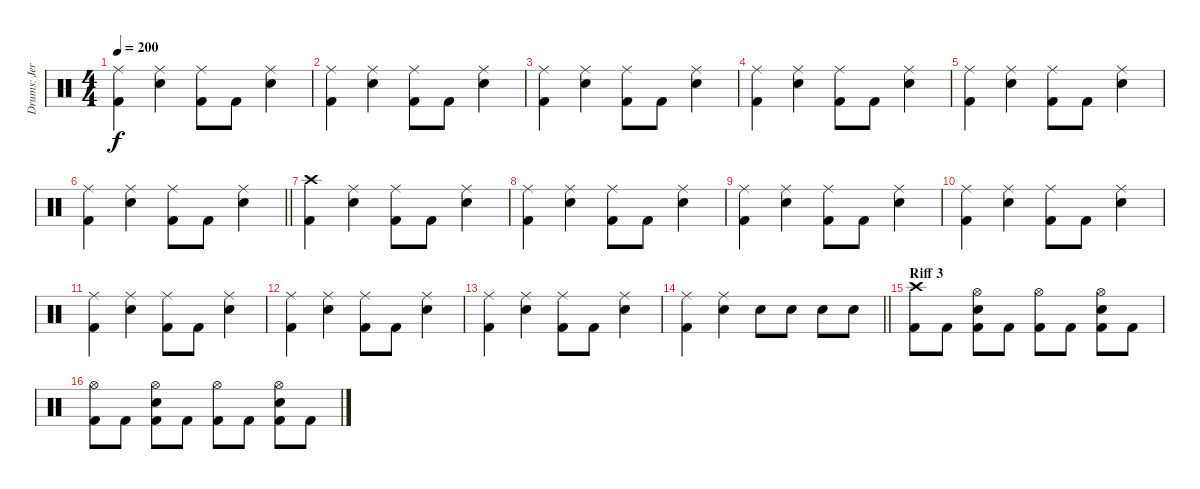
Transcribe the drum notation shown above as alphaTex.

\track ("Drums: Jere Luokkamäki" "Drums: Jer") {instrument percussion}
\staff {score}
\articulation defaults
\ts (4 4)
\tempo 200
\clef neutral
\ks aminor
("Ride (middle)" "Kick (hit) 2").4{dy f} ("Ride (middle)" "Electric Snare (hit)").4 ("Ride (middle)" "Kick (hit) 2").8 "Kick (hit) 2".8 ("Ride (middle)" "Electric Snare (hit)").4 |
("Ride (middle)" "Kick (hit) 2").4 ("Ride (middle)" "Electric Snare (hit)").4 ("Ride (middle)" "Kick (hit) 2").8 "Kick (hit) 2".8 ("Ride (middle)" "Electric Snare (hit)").4 |
("Ride (middle)" "Kick (hit) 2").4 ("Ride (middle)" "Electric Snare (hit)").4 ("Ride (middle)" "Kick (hit) 2").8 "Kick (hit) 2".8 ("Ride (middle)" "Electric Snare (hit)").4 |
("Ride (middle)" "Kick (hit) 2").4 ("Ride (middle)" "Electric Snare (hit)").4 ("Ride (middle)" "Kick (hit) 2").8 "Kick (hit) 2".8 ("Ride (middle)" "Electric Snare (hit)").4 |
("Ride (middle)" "Kick (hit) 2").4 ("Ride (middle)" "Electric Snare (hit)").4 ("Ride (middle)" "Kick (hit) 2").8 "Kick (hit) 2".8 ("Ride (middle)" "Electric Snare (hit)").4 |
\barLineRight lightlight
("Ride (middle)" "Kick (hit) 2").4 ("Ride (middle)" "Electric Snare (hit)").4 ("Ride (middle)" "Kick (hit) 2").8 "Kick (hit) 2".8 ("Ride (middle)" "Electric Snare (hit)").4 |
("Crash high (hit)" "Kick (hit) 2").4 ("Ride (middle)" "Electric Snare (hit)").4 ("Ride (middle)" "Kick (hit) 2").8 "Kick (hit) 2".8 ("Ride (middle)" "Electric Snare (hit)").4 |
("Ride (middle)" "Kick (hit) 2").4 ("Ride (middle)" "Electric Snare (hit)").4 ("Ride (middle)" "Kick (hit) 2").8 "Kick (hit) 2".8 ("Ride (middle)" "Electric Snare (hit)").4 |
("Ride (middle)" "Kick (hit) 2").4 ("Ride (middle)" "Electric Snare (hit)").4 ("Ride (middle)" "Kick (hit) 2").8 "Kick (hit) 2".8 ("Ride (middle)" "Electric Snare (hit)").4 |
("Ride (middle)" "Kick (hit) 2").4 ("Ride (middle)" "Electric Snare (hit)").4 ("Ride (middle)" "Kick (hit) 2").8 "Kick (hit) 2".8 ("Ride (middle)" "Electric Snare (hit)").4 |
("Ride (middle)" "Kick (hit) 2").4 ("Ride (middle)" "Electric Snare (hit)").4 ("Ride (middle)" "Kick (hit) 2").8 "Kick (hit) 2".8 ("Ride (middle)" "Electric Snare (hit)").4 |
("Ride (middle)" "Kick (hit) 2").4 ("Ride (middle)" "Electric Snare (hit)").4 ("Ride (middle)" "Kick (hit) 2").8 "Kick (hit) 2".8 ("Ride (middle)" "Electric Snare (hit)").4 |
("Ride (middle)" "Kick (hit) 2").4 ("Ride (middle)" "Electric Snare (hit)").4 ("Ride (middle)" "Kick (hit) 2").8 "Kick (hit) 2".8 ("Ride (middle)" "Electric Snare (hit)").4 |
\barLineRight lightlight
("Ride (middle)" "Kick (hit) 2").4 ("Ride (middle)" "Electric Snare (hit)").4 "Electric Snare (hit)".8 "Electric Snare (hit)".8 "Electric Snare (hit)".8 "Electric Snare (hit)".8 |
\section ("" "Riff 3")
("Crash high (hit)" "Kick (hit) 2").8 "Kick (hit) 2".8 ("Hi-Hat (open)" "Electric Snare (hit)" "Kick (hit) 2").8 "Kick (hit) 2".8 ("Hi-Hat (open)" "Kick (hit) 2").8 "Kick (hit) 2".8 ("Hi-Hat (open)" "Electric Snare (hit)" "Kick (hit) 2").8 "Kick (hit) 2".8 |
("Hi-Hat (open)" "Kick (hit) 2").8 "Kick (hit) 2".8 ("Hi-Hat (open)" "Electric Snare (hit)" "Kick (hit) 2").8 "Kick (hit) 2".8 ("Hi-Hat (open)" "Kick (hit) 2").8 "Kick (hit) 2".8 ("Hi-Hat (open)" "Electric Snare (hit)" "Kick (hit) 2").8 "Kick (hit) 2".8
